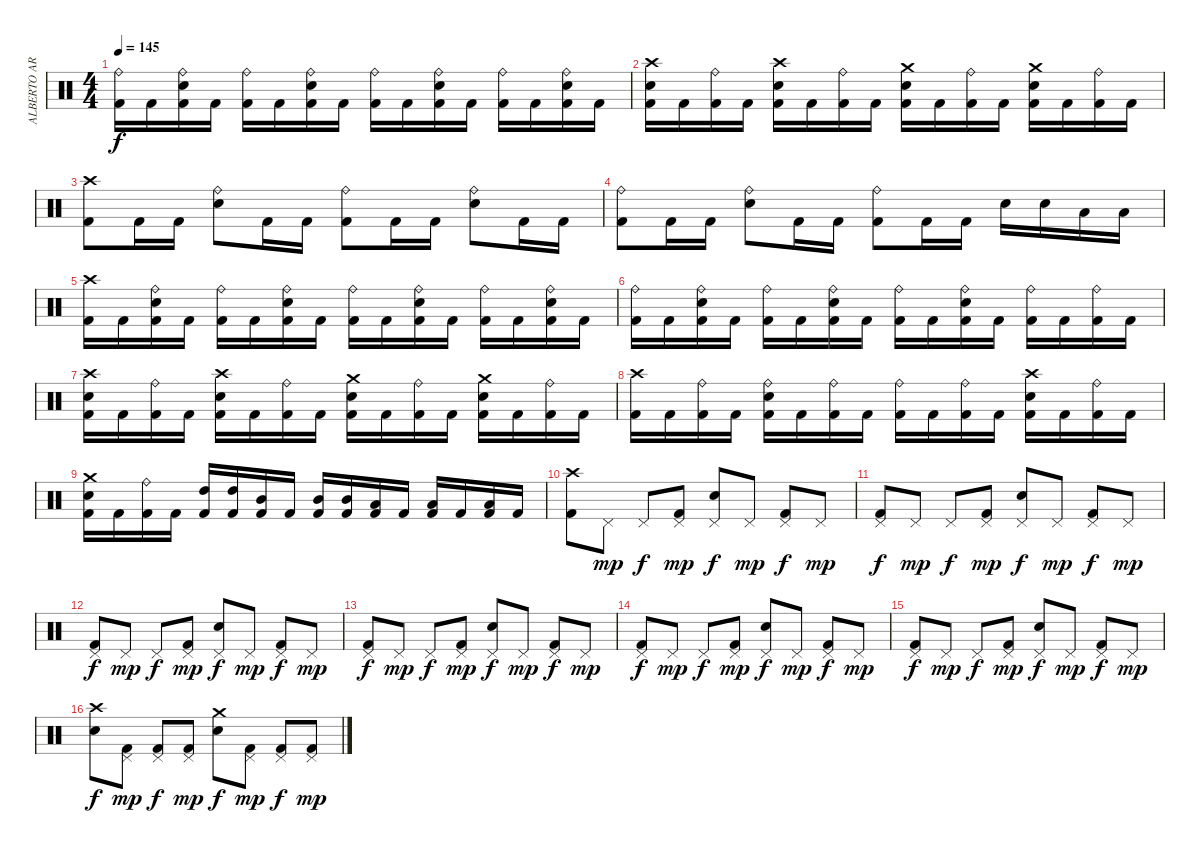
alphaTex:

\track ("ALBERTO ARDINES" "ALBERTO AR") {instrument percussion}
\staff {score}
\articulation defaults
\ts (4 4)
\tempo 145
\clef neutral
\ks c
("Ride (bell)" "Kick (hit) 2").16{dy f} "Kick (hit) 2".16 ("Ride (bell)" "Electric Snare (hit)" "Kick (hit) 2").16 "Kick (hit) 2".16 ("Ride (bell)" "Kick (hit) 2").16 "Kick (hit) 2".16 ("Ride (bell)" "Electric Snare (hit)" "Kick (hit) 2").16 "Kick (hit) 2".16 ("Ride (bell)" "Kick (hit) 2").16 "Kick (hit) 2".16 ("Ride (bell)" "Electric Snare (hit)" "Kick (hit) 2").16 "Kick (hit) 2".16 ("Ride (bell)" "Kick (hit) 2").16 "Kick (hit) 2".16 ("Ride (bell)" "Electric Snare (hit)" "Kick (hit) 2").16 "Kick (hit) 2".16 |
("Crash high (hit)" "Electric Snare (hit)" "Kick (hit) 2").16 "Kick (hit) 2".16 ("Ride (bell)" "Kick (hit) 2").16 "Kick (hit) 2".16 ("Crash high (hit)" "Electric Snare (hit)" "Kick (hit) 2").16 "Kick (hit) 2".16 ("Ride (bell)" "Kick (hit) 2").16 "Kick (hit) 2".16 ("Crash medium (hit)" "Electric Snare (hit)" "Kick (hit) 2").16 "Kick (hit) 2".16 ("Ride (bell)" "Kick (hit) 2").16 "Kick (hit) 2".16 ("Crash medium (hit)" "Electric Snare (hit)" "Kick (hit) 2").16 "Kick (hit) 2".16 ("Ride (bell)" "Kick (hit) 2").16 "Kick (hit) 2".16 |
("Crash high (hit)" "Kick (hit) 2").8 "Kick (hit) 2".16 "Kick (hit) 2".16 ("Ride (bell)" "Electric Snare (hit)").8 "Kick (hit) 2".16 "Kick (hit) 2".16 ("Ride (bell)" "Kick (hit) 2").8 "Kick (hit) 2".16 "Kick (hit) 2".16 ("Ride (bell)" "Electric Snare (hit)").8 "Kick (hit) 2".16 "Kick (hit) 2".16 |
("Ride (bell)" "Kick (hit) 2").8 "Kick (hit) 2".16 "Kick (hit) 2".16 ("Ride (bell)" "Electric Snare (hit)").8 "Kick (hit) 2".16 "Kick (hit) 2".16 ("Ride (bell)" "Kick (hit) 2").8 "Kick (hit) 2".16 "Kick (hit) 2".16 "Electric Snare (hit)".16 "Electric Snare (hit)".16 "Low Tom (hit)".16 "Low Tom (hit)".16 |
("Crash high (hit)" "Kick (hit) 2").16 "Kick (hit) 2".16 ("Ride (bell)" "Electric Snare (hit)" "Kick (hit) 2").16 "Kick (hit) 2".16 ("Ride (bell)" "Kick (hit) 2").16 "Kick (hit) 2".16 ("Ride (bell)" "Electric Snare (hit)" "Kick (hit) 2").16 "Kick (hit) 2".16 ("Ride (bell)" "Kick (hit) 2").16 "Kick (hit) 2".16 ("Ride (bell)" "Electric Snare (hit)" "Kick (hit) 2").16 "Kick (hit) 2".16 ("Ride (bell)" "Kick (hit) 2").16 "Kick (hit) 2".16 ("Ride (bell)" "Electric Snare (hit)" "Kick (hit) 2").16 "Kick (hit) 2".16 |
("Ride (bell)" "Kick (hit) 2").16 "Kick (hit) 2".16 ("Ride (bell)" "Electric Snare (hit)" "Kick (hit) 2").16 "Kick (hit) 2".16 ("Ride (bell)" "Kick (hit) 2").16 "Kick (hit) 2".16 ("Ride (bell)" "Electric Snare (hit)" "Kick (hit) 2").16 "Kick (hit) 2".16 ("Ride (bell)" "Kick (hit) 2").16 "Kick (hit) 2".16 ("Ride (bell)" "Electric Snare (hit)" "Kick (hit) 2").16 "Kick (hit) 2".16 ("Ride (bell)" "Kick (hit) 2").16 "Kick (hit) 2".16 ("Ride (bell)" "Kick (hit) 2").16 "Kick (hit) 2".16 |
("Crash high (hit)" "Electric Snare (hit)" "Kick (hit) 2").16 "Kick (hit) 2".16 ("Ride (bell)" "Kick (hit) 2").16 "Kick (hit) 2".16 ("Crash high (hit)" "Electric Snare (hit)" "Kick (hit) 2").16 "Kick (hit) 2".16 ("Ride (bell)" "Kick (hit) 2").16 "Kick (hit) 2".16 ("Crash medium (hit)" "Electric Snare (hit)" "Kick (hit) 2").16 "Kick (hit) 2".16 ("Ride (bell)" "Kick (hit) 2").16 "Kick (hit) 2".16 ("Crash medium (hit)" "Electric Snare (hit)" "Kick (hit) 2").16 "Kick (hit) 2".16 ("Ride (bell)" "Kick (hit) 2").16 "Kick (hit) 2".16 |
("Crash high (hit)" "Kick (hit) 2").16 "Kick (hit) 2".16 ("Ride (bell)" "Kick (hit) 2").16 "Kick (hit) 2".16 ("Ride (bell)" "Electric Snare (hit)" "Kick (hit) 2").16 "Kick (hit) 2".16 ("Ride (bell)" "Kick (hit) 2").16 "Kick (hit) 2".16 ("Ride (bell)" "Kick (hit) 2").16 "Kick (hit) 2".16 ("Ride (bell)" "Kick (hit) 2").16 "Kick (hit) 2".16 ("Crash high (hit)" "Electric Snare (hit)" "Kick (hit) 2").16 "Kick (hit) 2".16 ("Ride (bell)" "Kick (hit) 2").16 "Kick (hit) 2".16 |
("Crash medium (hit)" "Electric Snare (hit)" "Kick (hit) 2").16 "Kick (hit) 2".16 ("Ride (bell)" "Kick (hit) 2").16 "Kick (hit) 2".16 ("High Tom (hit)" "Kick (hit) 2").16 ("High Tom (hit)" "Kick (hit) 2").16 ("Mid Tom (hit)" "Kick (hit) 2").16 "Kick (hit) 2".16 ("Mid Tom (hit)" "Kick (hit) 2").16 ("Mid Tom (hit)" "Kick (hit) 2").16 ("Low Tom (hit)" "Kick (hit) 2").16 "Kick (hit) 2".16 ("Low Tom (hit)" "Kick (hit) 2").16 "Kick (hit) 2".16 ("Low Tom (hit)" "Kick (hit) 2").16 "Kick (hit) 2".16 |
("Crash high (hit)" "Kick (hit) 2").8 "Pedal Hi-Hat (hit)".8{dy mp} "Pedal Hi-Hat (hit)".8{dy f} ("Pedal Hi-Hat (hit)" "Kick (hit) 2").8{dy mp} ("Pedal Hi-Hat (hit)" "Electric Snare (hit)").8{dy f} "Pedal Hi-Hat (hit)".8{dy mp} ("Pedal Hi-Hat (hit)" "Kick (hit) 2").8{dy f} "Pedal Hi-Hat (hit)".8{dy mp} |
("Pedal Hi-Hat (hit)" "Kick (hit) 2").8{dy f} "Pedal Hi-Hat (hit)".8{dy mp} "Pedal Hi-Hat (hit)".8{dy f} ("Pedal Hi-Hat (hit)" "Kick (hit) 2").8{dy mp} ("Pedal Hi-Hat (hit)" "Electric Snare (hit)").8{dy f} "Pedal Hi-Hat (hit)".8{dy mp} ("Pedal Hi-Hat (hit)" "Kick (hit) 2").8{dy f} "Pedal Hi-Hat (hit)".8{dy mp} |
("Pedal Hi-Hat (hit)" "Kick (hit) 2").8{dy f} "Pedal Hi-Hat (hit)".8{dy mp} "Pedal Hi-Hat (hit)".8{dy f} ("Pedal Hi-Hat (hit)" "Kick (hit) 2").8{dy mp} ("Pedal Hi-Hat (hit)" "Electric Snare (hit)").8{dy f} "Pedal Hi-Hat (hit)".8{dy mp} ("Pedal Hi-Hat (hit)" "Kick (hit) 2").8{dy f} "Pedal Hi-Hat (hit)".8{dy mp} |
("Pedal Hi-Hat (hit)" "Kick (hit) 2").8{dy f} "Pedal Hi-Hat (hit)".8{dy mp} "Pedal Hi-Hat (hit)".8{dy f} ("Pedal Hi-Hat (hit)" "Kick (hit) 2").8{dy mp} ("Pedal Hi-Hat (hit)" "Electric Snare (hit)").8{dy f} "Pedal Hi-Hat (hit)".8{dy mp} ("Pedal Hi-Hat (hit)" "Kick (hit) 2").8{dy f} "Pedal Hi-Hat (hit)".8{dy mp} |
("Pedal Hi-Hat (hit)" "Kick (hit) 2").8{dy f} "Pedal Hi-Hat (hit)".8{dy mp} "Pedal Hi-Hat (hit)".8{dy f} ("Pedal Hi-Hat (hit)" "Kick (hit) 2").8{dy mp} ("Pedal Hi-Hat (hit)" "Electric Snare (hit)").8{dy f} "Pedal Hi-Hat (hit)".8{dy mp} ("Pedal Hi-Hat (hit)" "Kick (hit) 2").8{dy f} "Pedal Hi-Hat (hit)".8{dy mp} |
("Pedal Hi-Hat (hit)" "Kick (hit) 2").8{dy f} "Pedal Hi-Hat (hit)".8{dy mp} "Pedal Hi-Hat (hit)".8{dy f} ("Pedal Hi-Hat (hit)" "Kick (hit) 2").8{dy mp} ("Pedal Hi-Hat (hit)" "Electric Snare (hit)").8{dy f} "Pedal Hi-Hat (hit)".8{dy mp} ("Pedal Hi-Hat (hit)" "Kick (hit) 2").8{dy f} "Pedal Hi-Hat (hit)".8{dy mp} |
("Crash high (hit)" "Electric Snare (hit)").8{dy f} ("Pedal Hi-Hat (hit)" "Kick (hit) 2").8{dy mp} ("Pedal Hi-Hat (hit)" "Kick (hit) 2").8{dy f} ("Pedal Hi-Hat (hit)" "Kick (hit) 2").8{dy mp} ("Crash medium (hit)" "Electric Snare (hit)").8{dy f} ("Pedal Hi-Hat (hit)" "Kick (hit) 2").8{dy mp} ("Pedal Hi-Hat (hit)" "Kick (hit) 2").8{dy f} ("Pedal Hi-Hat (hit)" "Kick (hit) 2").8{dy mp}
